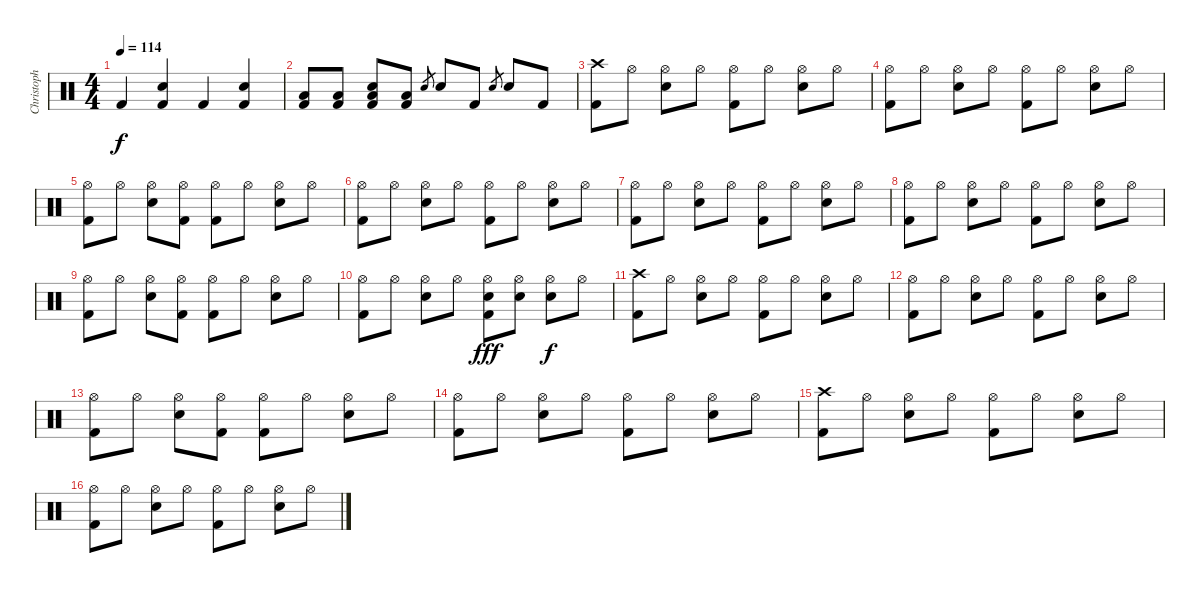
\track ("Christoph" "Christoph") {instrument percussion}
\staff {score}
\articulation defaults
\ts (4 4)
\tempo 114
\clef neutral
\ks c "Kick (hit) 2".4{dy f}
("Electric Snare (hit)" "Kick (hit) 2").4 "Kick (hit) 2".4 ("Electric Snare (hit)" "Kick (hit) 2").4 |
("Low Floor Tom (hit)" "Kick (hit) 2").8 ("Low Floor Tom (hit)" "Kick (hit) 2").8 ("Low Floor Tom (hit)" "Electric Snare (hit)" "Kick (hit) 2").8 ("Low Floor Tom (hit)" "Kick (hit) 2").8 "Electric Snare (hit)".8{gr} "Electric Snare (hit)".8 "Kick (hit) 2".8 "Electric Snare (hit)".8{gr} "Electric Snare (hit)".8 "Kick (hit) 2".8 |
("Crash high (hit)" "Kick (hit) 2").8 "Hi-Hat (open)".8 ("Hi-Hat (open)" "Electric Snare (hit)").8 "Hi-Hat (open)".8 ("Hi-Hat (open)" "Kick (hit) 2").8 "Hi-Hat (open)".8 ("Hi-Hat (open)" "Electric Snare (hit)").8 "Hi-Hat (open)".8 |
("Hi-Hat (open)" "Kick (hit) 2").8 "Hi-Hat (open)".8 ("Hi-Hat (open)" "Electric Snare (hit)").8 "Hi-Hat (open)".8 ("Hi-Hat (open)" "Kick (hit) 2").8 "Hi-Hat (open)".8 ("Hi-Hat (open)" "Electric Snare (hit)").8 "Hi-Hat (open)".8 |
("Hi-Hat (open)" "Kick (hit) 2").8 "Hi-Hat (open)".8 ("Hi-Hat (open)" "Electric Snare (hit)").8 ("Hi-Hat (open)" "Kick (hit) 2").8 ("Hi-Hat (open)" "Kick (hit) 2").8 "Hi-Hat (open)".8 ("Hi-Hat (open)" "Electric Snare (hit)").8 "Hi-Hat (open)".8 |
("Hi-Hat (open)" "Kick (hit) 2").8 "Hi-Hat (open)".8 ("Hi-Hat (open)" "Electric Snare (hit)").8 "Hi-Hat (open)".8 ("Hi-Hat (open)" "Kick (hit) 2").8 "Hi-Hat (open)".8 ("Hi-Hat (open)" "Electric Snare (hit)").8 "Hi-Hat (open)".8 |
("Hi-Hat (open)" "Kick (hit) 2").8 "Hi-Hat (open)".8 ("Hi-Hat (open)" "Electric Snare (hit)").8 "Hi-Hat (open)".8 ("Hi-Hat (open)" "Kick (hit) 2").8 "Hi-Hat (open)".8 ("Hi-Hat (open)" "Electric Snare (hit)").8 "Hi-Hat (open)".8 |
("Hi-Hat (open)" "Kick (hit) 2").8 "Hi-Hat (open)".8 ("Hi-Hat (open)" "Electric Snare (hit)").8 "Hi-Hat (open)".8 ("Hi-Hat (open)" "Kick (hit) 2").8 "Hi-Hat (open)".8 ("Hi-Hat (open)" "Electric Snare (hit)").8 "Hi-Hat (open)".8 |
("Hi-Hat (open)" "Kick (hit) 2").8 "Hi-Hat (open)".8 ("Hi-Hat (open)" "Electric Snare (hit)").8 ("Hi-Hat (open)" "Kick (hit) 2").8 ("Hi-Hat (open)" "Kick (hit) 2").8 "Hi-Hat (open)".8 ("Hi-Hat (open)" "Electric Snare (hit)").8 "Hi-Hat (open)".8 |
("Hi-Hat (open)" "Kick (hit) 2").8 "Hi-Hat (open)".8 ("Hi-Hat (open)" "Electric Snare (hit)").8 "Hi-Hat (open)".8 ("Hi-Hat (open)" "Kick (hit) 2" "Electric Snare (hit)").8{dy fff} ("Hi-Hat (open)" "Electric Snare (hit)").8 ("Hi-Hat (open)" "Electric Snare (hit)").8{dy f} "Hi-Hat (open)".8 |
("Crash high (hit)" "Kick (hit) 2").8 "Hi-Hat (open)".8 ("Hi-Hat (open)" "Electric Snare (hit)").8 "Hi-Hat (open)".8 ("Hi-Hat (open)" "Kick (hit) 2").8 "Hi-Hat (open)".8 ("Hi-Hat (open)" "Electric Snare (hit)").8 "Hi-Hat (open)".8 |
("Hi-Hat (open)" "Kick (hit) 2").8 "Hi-Hat (open)".8 ("Hi-Hat (open)" "Electric Snare (hit)").8 "Hi-Hat (open)".8 ("Hi-Hat (open)" "Kick (hit) 2").8 "Hi-Hat (open)".8 ("Hi-Hat (open)" "Electric Snare (hit)").8 "Hi-Hat (open)".8 |
("Hi-Hat (open)" "Kick (hit) 2").8 "Hi-Hat (open)".8 ("Hi-Hat (open)" "Electric Snare (hit)").8 ("Hi-Hat (open)" "Kick (hit) 2").8 ("Hi-Hat (open)" "Kick (hit) 2").8 "Hi-Hat (open)".8 ("Hi-Hat (open)" "Electric Snare (hit)").8 "Hi-Hat (open)".8 |
("Hi-Hat (open)" "Kick (hit) 2").8 "Hi-Hat (open)".8 ("Hi-Hat (open)" "Electric Snare (hit)").8 "Hi-Hat (open)".8 ("Hi-Hat (open)" "Kick (hit) 2").8 "Hi-Hat (open)".8 ("Hi-Hat (open)" "Electric Snare (hit)").8 "Hi-Hat (open)".8 |
("Crash high (hit)" "Kick (hit) 2").8 "Hi-Hat (open)".8 ("Hi-Hat (open)" "Electric Snare (hit)").8 "Hi-Hat (open)".8 ("Hi-Hat (open)" "Kick (hit) 2").8 "Hi-Hat (open)".8 ("Hi-Hat (open)" "Electric Snare (hit)").8 "Hi-Hat (open)".8 |
("Hi-Hat (open)" "Kick (hit) 2").8 "Hi-Hat (open)".8 ("Hi-Hat (open)" "Electric Snare (hit)").8 "Hi-Hat (open)".8 ("Hi-Hat (open)" "Kick (hit) 2").8 "Hi-Hat (open)".8 ("Hi-Hat (open)" "Electric Snare (hit)").8 "Hi-Hat (open)".8
